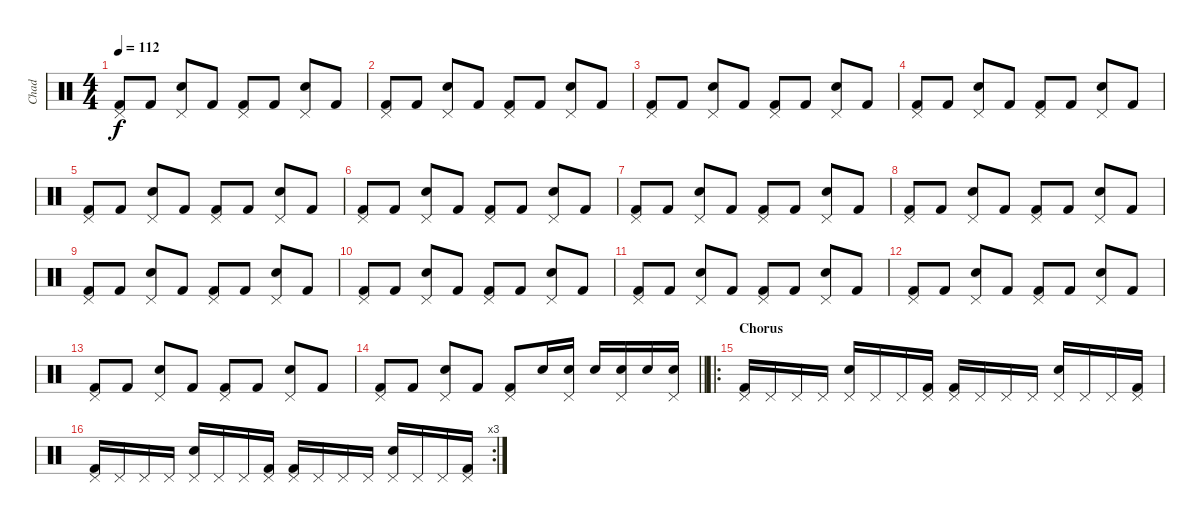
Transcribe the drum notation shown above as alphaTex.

\track ("Chad" "Chad") {instrument percussion}
\staff {score}
\articulation defaults
\ts (4 4)
\tempo 112
\clef neutral
\ks c
("Kick (hit) 2" "Pedal Hi-Hat (hit)").8{dy f} "Kick (hit) 2".8 ("Snare (hit) 2" "Pedal Hi-Hat (hit)").8 "Kick (hit) 2".8 ("Kick (hit) 2" "Pedal Hi-Hat (hit)").8 "Kick (hit) 2".8 ("Snare (hit) 2" "Pedal Hi-Hat (hit)").8 "Kick (hit) 2".8 |
("Kick (hit) 2" "Pedal Hi-Hat (hit)").8 "Kick (hit) 2".8 ("Snare (hit) 2" "Pedal Hi-Hat (hit)").8 "Kick (hit) 2".8 ("Kick (hit) 2" "Pedal Hi-Hat (hit)").8 "Kick (hit) 2".8 ("Snare (hit) 2" "Pedal Hi-Hat (hit)").8 "Kick (hit) 2".8 |
("Kick (hit) 2" "Pedal Hi-Hat (hit)").8 "Kick (hit) 2".8 ("Snare (hit) 2" "Pedal Hi-Hat (hit)").8 "Kick (hit) 2".8 ("Kick (hit) 2" "Pedal Hi-Hat (hit)").8 "Kick (hit) 2".8 ("Snare (hit) 2" "Pedal Hi-Hat (hit)").8 "Kick (hit) 2".8 |
("Kick (hit) 2" "Pedal Hi-Hat (hit)").8 "Kick (hit) 2".8 ("Snare (hit) 2" "Pedal Hi-Hat (hit)").8 "Kick (hit) 2".8 ("Kick (hit) 2" "Pedal Hi-Hat (hit)").8 "Kick (hit) 2".8 ("Snare (hit) 2" "Pedal Hi-Hat (hit)").8 "Kick (hit) 2".8 |
("Kick (hit) 2" "Pedal Hi-Hat (hit)").8 "Kick (hit) 2".8 ("Snare (hit) 2" "Pedal Hi-Hat (hit)").8 "Kick (hit) 2".8 ("Kick (hit) 2" "Pedal Hi-Hat (hit)").8 "Kick (hit) 2".8 ("Snare (hit) 2" "Pedal Hi-Hat (hit)").8 "Kick (hit) 2".8 |
("Kick (hit) 2" "Pedal Hi-Hat (hit)").8 "Kick (hit) 2".8 ("Snare (hit) 2" "Pedal Hi-Hat (hit)").8 "Kick (hit) 2".8 ("Kick (hit) 2" "Pedal Hi-Hat (hit)").8 "Kick (hit) 2".8 ("Snare (hit) 2" "Pedal Hi-Hat (hit)").8 "Kick (hit) 2".8 |
("Kick (hit) 2" "Pedal Hi-Hat (hit)").8 "Kick (hit) 2".8 ("Snare (hit) 2" "Pedal Hi-Hat (hit)").8 "Kick (hit) 2".8 ("Kick (hit) 2" "Pedal Hi-Hat (hit)").8 "Kick (hit) 2".8 ("Snare (hit) 2" "Pedal Hi-Hat (hit)").8 "Kick (hit) 2".8 |
("Kick (hit) 2" "Pedal Hi-Hat (hit)").8 "Kick (hit) 2".8 ("Snare (hit) 2" "Pedal Hi-Hat (hit)").8 "Kick (hit) 2".8 ("Kick (hit) 2" "Pedal Hi-Hat (hit)").8 "Kick (hit) 2".8 ("Snare (hit) 2" "Pedal Hi-Hat (hit)").8 "Kick (hit) 2".8 |
("Kick (hit) 2" "Pedal Hi-Hat (hit)").8 "Kick (hit) 2".8 ("Snare (hit) 2" "Pedal Hi-Hat (hit)").8 "Kick (hit) 2".8 ("Kick (hit) 2" "Pedal Hi-Hat (hit)").8 "Kick (hit) 2".8 ("Snare (hit) 2" "Pedal Hi-Hat (hit)").8 "Kick (hit) 2".8 |
("Kick (hit) 2" "Pedal Hi-Hat (hit)").8 "Kick (hit) 2".8 ("Snare (hit) 2" "Pedal Hi-Hat (hit)").8 "Kick (hit) 2".8 ("Kick (hit) 2" "Pedal Hi-Hat (hit)").8 "Kick (hit) 2".8 ("Snare (hit) 2" "Pedal Hi-Hat (hit)").8 "Kick (hit) 2".8 |
("Kick (hit) 2" "Pedal Hi-Hat (hit)").8 "Kick (hit) 2".8 ("Snare (hit) 2" "Pedal Hi-Hat (hit)").8 "Kick (hit) 2".8 ("Kick (hit) 2" "Pedal Hi-Hat (hit)").8 "Kick (hit) 2".8 ("Snare (hit) 2" "Pedal Hi-Hat (hit)").8 "Kick (hit) 2".8 |
("Kick (hit) 2" "Pedal Hi-Hat (hit)").8 "Kick (hit) 2".8 ("Snare (hit) 2" "Pedal Hi-Hat (hit)").8 "Kick (hit) 2".8 ("Kick (hit) 2" "Pedal Hi-Hat (hit)").8 "Kick (hit) 2".8 ("Snare (hit) 2" "Pedal Hi-Hat (hit)").8 "Kick (hit) 2".8 |
("Kick (hit) 2" "Pedal Hi-Hat (hit)").8 "Kick (hit) 2".8 ("Snare (hit) 2" "Pedal Hi-Hat (hit)").8 "Kick (hit) 2".8 ("Kick (hit) 2" "Pedal Hi-Hat (hit)").8 "Kick (hit) 2".8 ("Snare (hit) 2" "Pedal Hi-Hat (hit)").8 "Kick (hit) 2".8 |
\barLineRight lightlight
("Kick (hit) 2" "Pedal Hi-Hat (hit)").8 "Kick (hit) 2".8 ("Snare (hit) 2" "Pedal Hi-Hat (hit)").8 "Kick (hit) 2".8 ("Kick (hit) 2" "Pedal Hi-Hat (hit)").8 "Snare (hit) 2".16 ("Snare (hit) 2" "Pedal Hi-Hat (hit)").16 "Snare (hit) 2".16 ("Snare (hit) 2" "Pedal Hi-Hat (hit)").16 "Snare (hit) 2".16 ("Snare (hit) 2" "Pedal Hi-Hat (hit)").16 |
\ro
\section ("" "Chorus")
("Kick (hit) 2" "Pedal Hi-Hat (hit)").16 "Pedal Hi-Hat (hit)".16 "Pedal Hi-Hat (hit)".16 "Pedal Hi-Hat (hit)".16 ("Snare (hit) 2" "Pedal Hi-Hat (hit)").16 "Pedal Hi-Hat (hit)".16 "Pedal Hi-Hat (hit)".16 ("Kick (hit) 2" "Pedal Hi-Hat (hit)").16 ("Kick (hit) 2" "Pedal Hi-Hat (hit)").16 "Pedal Hi-Hat (hit)".16 "Pedal Hi-Hat (hit)".16 "Pedal Hi-Hat (hit)".16 ("Snare (hit) 2" "Pedal Hi-Hat (hit)").16 "Pedal Hi-Hat (hit)".16 "Pedal Hi-Hat (hit)".16 ("Kick (hit) 2" "Pedal Hi-Hat (hit)").16 |
\rc 3
("Kick (hit) 2" "Pedal Hi-Hat (hit)").16 "Pedal Hi-Hat (hit)".16 "Pedal Hi-Hat (hit)".16 "Pedal Hi-Hat (hit)".16 ("Snare (hit) 2" "Pedal Hi-Hat (hit)").16 "Pedal Hi-Hat (hit)".16 "Pedal Hi-Hat (hit)".16 ("Kick (hit) 2" "Pedal Hi-Hat (hit)").16 ("Kick (hit) 2" "Pedal Hi-Hat (hit)").16 "Pedal Hi-Hat (hit)".16 "Pedal Hi-Hat (hit)".16 "Pedal Hi-Hat (hit)".16 ("Snare (hit) 2" "Pedal Hi-Hat (hit)").16 "Pedal Hi-Hat (hit)".16 "Pedal Hi-Hat (hit)".16 ("Kick (hit) 2" "Pedal Hi-Hat (hit)").16
